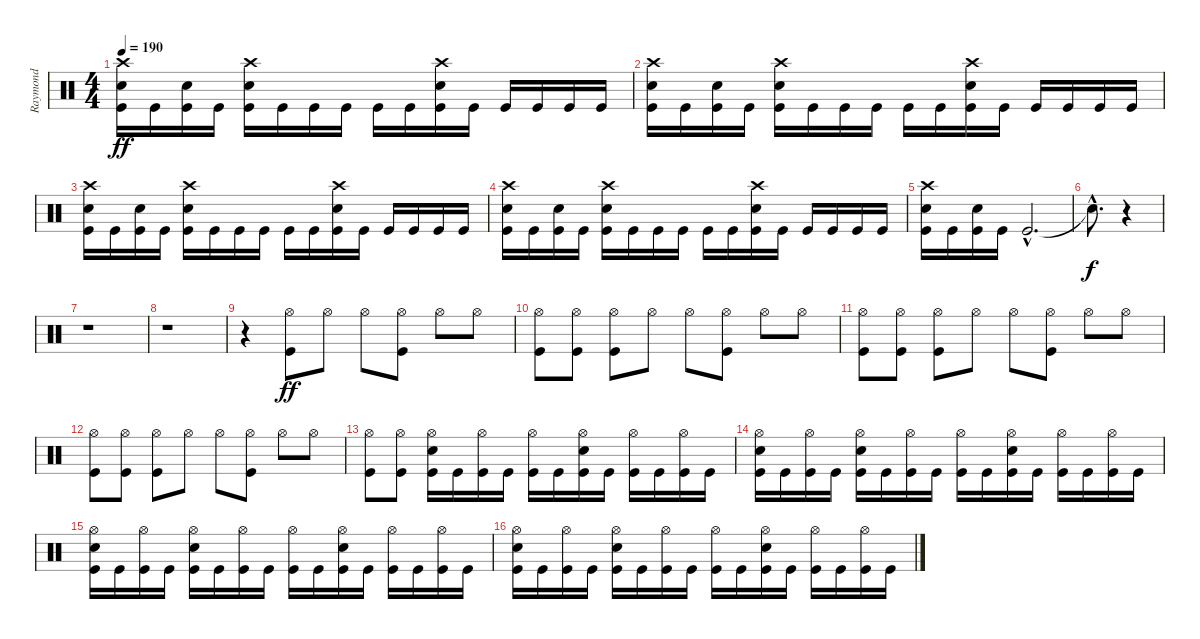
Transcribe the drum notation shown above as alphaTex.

\track ("Raymond" "Raymond") {instrument percussion}
\staff {score}
\articulation defaults
\ts (4 4)
\tempo 190
\clef neutral
\ks c
("Kick (hit)" "Snare (hit) 2" "Crash high (hit)").16{dy ff} "Kick (hit)".16 ("Kick (hit)" "Snare (hit) 2").16 "Kick (hit)".16 ("Kick (hit)" "Snare (hit) 2" "Crash high (hit)").16 "Kick (hit)".16 "Kick (hit)".16 "Kick (hit)".16 "Kick (hit)".16 "Kick (hit)".16 ("Kick (hit)" "Snare (hit) 2" "Crash high (hit)").16 "Kick (hit)".16 "Kick (hit)".16 "Kick (hit)".16 "Kick (hit)".16 "Kick (hit)".16 |
("Kick (hit)" "Snare (hit) 2" "Crash high (hit)").16 "Kick (hit)".16 ("Kick (hit)" "Snare (hit) 2").16 "Kick (hit)".16 ("Kick (hit)" "Snare (hit) 2" "Crash high (hit)").16 "Kick (hit)".16 "Kick (hit)".16 "Kick (hit)".16 "Kick (hit)".16 "Kick (hit)".16 ("Kick (hit)" "Snare (hit) 2" "Crash high (hit)").16 "Kick (hit)".16 "Kick (hit)".16 "Kick (hit)".16 "Kick (hit)".16 "Kick (hit)".16 |
("Kick (hit)" "Snare (hit) 2" "Crash high (hit)").16 "Kick (hit)".16 ("Kick (hit)" "Snare (hit) 2").16 "Kick (hit)".16 ("Kick (hit)" "Snare (hit) 2" "Crash high (hit)").16 "Kick (hit)".16 "Kick (hit)".16 "Kick (hit)".16 "Kick (hit)".16 "Kick (hit)".16 ("Kick (hit)" "Snare (hit) 2" "Crash high (hit)").16 "Kick (hit)".16 "Kick (hit)".16 "Kick (hit)".16 "Kick (hit)".16 "Kick (hit)".16 |
("Kick (hit)" "Snare (hit) 2" "Crash high (hit)").16 "Kick (hit)".16 ("Kick (hit)" "Snare (hit) 2").16 "Kick (hit)".16 ("Kick (hit)" "Snare (hit) 2" "Crash high (hit)").16 "Kick (hit)".16 "Kick (hit)".16 "Kick (hit)".16 "Kick (hit)".16 "Kick (hit)".16 ("Kick (hit)" "Snare (hit) 2" "Crash high (hit)").16 "Kick (hit)".16 "Kick (hit)".16 "Kick (hit)".16 "Kick (hit)".16 "Kick (hit)".16 |
("Kick (hit)" "Snare (hit) 2" "Crash high (hit)").16 "Kick (hit)".16 ("Kick (hit)" "Snare (hit) 2").16 "Kick (hit)".16 "Kick (hit)"{hac}.2{d} |
"Snare (hit)"{hac t}.8{d dy f} r.4 |
r.1 |
r.1 |
r.4 ("Kick (hit)" "Hi-Hat (open)").8{dy ff} "Hi-Hat (open)".8 "Hi-Hat (open)".8 ("Kick (hit)" "Hi-Hat (open)").8 "Hi-Hat (open)".8 "Hi-Hat (open)".8 |
("Kick (hit)" "Hi-Hat (open)").8 ("Kick (hit)" "Hi-Hat (open)").8 ("Kick (hit)" "Hi-Hat (open)").8 "Hi-Hat (open)".8 "Hi-Hat (open)".8 ("Kick (hit)" "Hi-Hat (open)").8 "Hi-Hat (open)".8 "Hi-Hat (open)".8 |
("Kick (hit)" "Hi-Hat (open)").8 ("Kick (hit)" "Hi-Hat (open)").8 ("Kick (hit)" "Hi-Hat (open)").8 "Hi-Hat (open)".8 "Hi-Hat (open)".8 ("Kick (hit)" "Hi-Hat (open)").8 "Hi-Hat (open)".8 "Hi-Hat (open)".8 |
("Kick (hit)" "Hi-Hat (open)").8 ("Kick (hit)" "Hi-Hat (open)").8 ("Kick (hit)" "Hi-Hat (open)").8 "Hi-Hat (open)".8 "Hi-Hat (open)".8 ("Kick (hit)" "Hi-Hat (open)").8 "Hi-Hat (open)".8 "Hi-Hat (open)".8 |
("Kick (hit)" "Hi-Hat (open)").8 ("Kick (hit)" "Hi-Hat (open)").8 ("Kick (hit)" "Snare (hit) 2" "Hi-Hat (open)").16 "Kick (hit)".16 ("Kick (hit)" "Hi-Hat (open)").16 "Kick (hit)".16 ("Kick (hit)" "Hi-Hat (open)").16 "Kick (hit)".16 ("Kick (hit)" "Snare (hit) 2" "Hi-Hat (open)").16 "Kick (hit)".16 ("Kick (hit)" "Hi-Hat (open)").16 "Kick (hit)".16 ("Kick (hit)" "Hi-Hat (open)").16 "Kick (hit)".16 |
("Kick (hit)" "Snare (hit) 2" "Hi-Hat (open)").16 "Kick (hit)".16 ("Kick (hit)" "Hi-Hat (open)").16 "Kick (hit)".16 ("Kick (hit)" "Snare (hit) 2" "Hi-Hat (open)").16 "Kick (hit)".16 ("Kick (hit)" "Hi-Hat (open)").16 "Kick (hit)".16 ("Kick (hit)" "Hi-Hat (open)").16 "Kick (hit)".16 ("Kick (hit)" "Snare (hit) 2" "Hi-Hat (open)").16 "Kick (hit)".16 ("Kick (hit)" "Hi-Hat (open)").16 "Kick (hit)".16 ("Kick (hit)" "Hi-Hat (open)").16 "Kick (hit)".16 |
("Kick (hit)" "Snare (hit) 2" "Hi-Hat (open)").16 "Kick (hit)".16 ("Kick (hit)" "Hi-Hat (open)").16 "Kick (hit)".16 ("Kick (hit)" "Snare (hit) 2" "Hi-Hat (open)").16 "Kick (hit)".16 ("Kick (hit)" "Hi-Hat (open)").16 "Kick (hit)".16 ("Kick (hit)" "Hi-Hat (open)").16 "Kick (hit)".16 ("Kick (hit)" "Snare (hit) 2" "Hi-Hat (open)").16 "Kick (hit)".16 ("Kick (hit)" "Hi-Hat (open)").16 "Kick (hit)".16 ("Kick (hit)" "Hi-Hat (open)").16 "Kick (hit)".16 |
("Kick (hit)" "Snare (hit) 2" "Hi-Hat (open)").16 "Kick (hit)".16 ("Kick (hit)" "Hi-Hat (open)").16 "Kick (hit)".16 ("Kick (hit)" "Snare (hit) 2" "Hi-Hat (open)").16 "Kick (hit)".16 ("Kick (hit)" "Hi-Hat (open)").16 "Kick (hit)".16 ("Kick (hit)" "Hi-Hat (open)").16 "Kick (hit)".16 ("Kick (hit)" "Snare (hit) 2" "Hi-Hat (open)").16 "Kick (hit)".16 ("Kick (hit)" "Hi-Hat (open)").16 "Kick (hit)".16 ("Kick (hit)" "Hi-Hat (open)").16 "Kick (hit)".16
